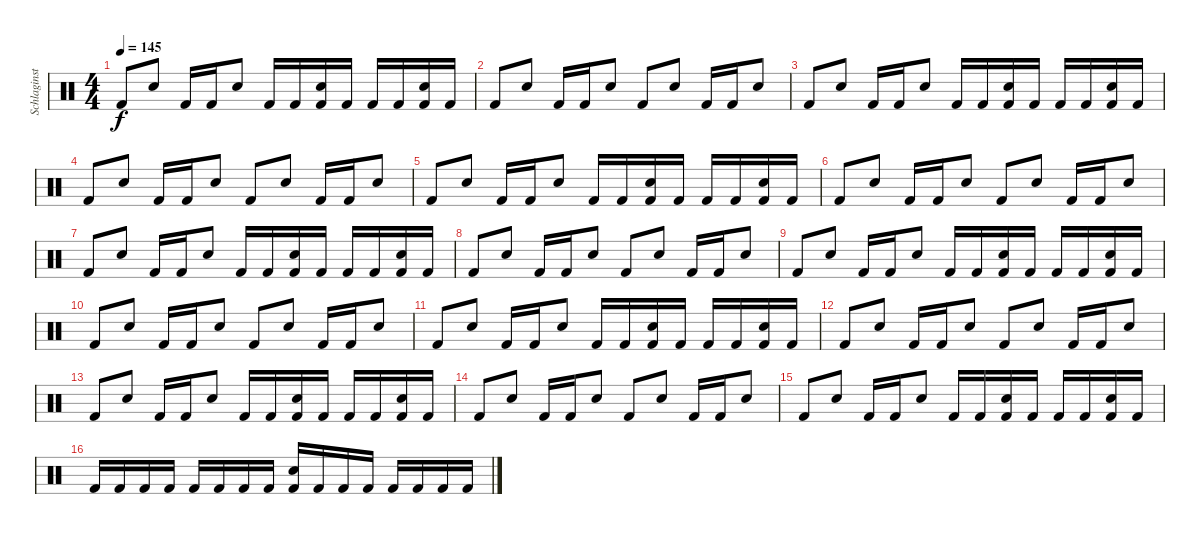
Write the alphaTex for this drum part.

\track ("Schlaginstrumente - Auswahl" "Schlaginst") {instrument percussion}
\staff {score}
\articulation defaults
\ts (4 4)
\tempo 145
\clef neutral
\ks c "Kick (hit) 2".8{dy f} "Snare (hit) 2".8 "Kick (hit) 2".16 "Kick (hit) 2".16 "Snare (hit) 2".8 "Kick (hit) 2".16 "Kick (hit) 2".16
("Snare (hit) 2" "Kick (hit) 2").16 "Kick (hit) 2".16 "Kick (hit) 2".16 "Kick (hit) 2".16 ("Snare (hit) 2" "Kick (hit) 2").16 "Kick (hit) 2".16 |
"Kick (hit) 2".8 "Snare (hit) 2".8 "Kick (hit) 2".16 "Kick (hit) 2".16 "Snare (hit) 2".8 "Kick (hit) 2".8 "Snare (hit) 2".8 "Kick (hit) 2".16 "Kick (hit) 2".16 "Snare (hit) 2".8 |
"Kick (hit) 2".8 "Snare (hit) 2".8 "Kick (hit) 2".16 "Kick (hit) 2".16 "Snare (hit) 2".8 "Kick (hit) 2".16 "Kick (hit) 2".16 ("Snare (hit) 2" "Kick (hit) 2").16 "Kick (hit) 2".16 "Kick (hit) 2".16 "Kick (hit) 2".16 ("Snare (hit) 2" "Kick (hit) 2").16 "Kick (hit) 2".16 |
"Kick (hit) 2".8 "Snare (hit) 2".8 "Kick (hit) 2".16 "Kick (hit) 2".16 "Snare (hit) 2".8 "Kick (hit) 2".8 "Snare (hit) 2".8 "Kick (hit) 2".16 "Kick (hit) 2".16 "Snare (hit) 2".8 |
"Kick (hit) 2".8 "Snare (hit) 2".8 "Kick (hit) 2".16 "Kick (hit) 2".16 "Snare (hit) 2".8 "Kick (hit) 2".16 "Kick (hit) 2".16 ("Snare (hit) 2" "Kick (hit) 2").16 "Kick (hit) 2".16 "Kick (hit) 2".16 "Kick (hit) 2".16 ("Snare (hit) 2" "Kick (hit) 2").16 "Kick (hit) 2".16 |
"Kick (hit) 2".8 "Snare (hit) 2".8 "Kick (hit) 2".16 "Kick (hit) 2".16 "Snare (hit) 2".8 "Kick (hit) 2".8 "Snare (hit) 2".8 "Kick (hit) 2".16 "Kick (hit) 2".16 "Snare (hit) 2".8 |
"Kick (hit) 2".8 "Snare (hit) 2".8 "Kick (hit) 2".16 "Kick (hit) 2".16 "Snare (hit) 2".8 "Kick (hit) 2".16 "Kick (hit) 2".16 ("Snare (hit) 2" "Kick (hit) 2").16 "Kick (hit) 2".16 "Kick (hit) 2".16 "Kick (hit) 2".16 ("Snare (hit) 2" "Kick (hit) 2").16 "Kick (hit) 2".16 |
"Kick (hit) 2".8 "Snare (hit) 2".8 "Kick (hit) 2".16 "Kick (hit) 2".16 "Snare (hit) 2".8 "Kick (hit) 2".8 "Snare (hit) 2".8 "Kick (hit) 2".16 "Kick (hit) 2".16 "Snare (hit) 2".8 |
"Kick (hit) 2".8 "Snare (hit) 2".8 "Kick (hit) 2".16 "Kick (hit) 2".16 "Snare (hit) 2".8 "Kick (hit) 2".16 "Kick (hit) 2".16 ("Snare (hit) 2" "Kick (hit) 2").16 "Kick (hit) 2".16 "Kick (hit) 2".16 "Kick (hit) 2".16 ("Snare (hit) 2" "Kick (hit) 2").16 "Kick (hit) 2".16 |
"Kick (hit) 2".8 "Snare (hit) 2".8 "Kick (hit) 2".16 "Kick (hit) 2".16 "Snare (hit) 2".8 "Kick (hit) 2".8 "Snare (hit) 2".8 "Kick (hit) 2".16 "Kick (hit) 2".16 "Snare (hit) 2".8 |
"Kick (hit) 2".8 "Snare (hit) 2".8 "Kick (hit) 2".16 "Kick (hit) 2".16 "Snare (hit) 2".8 "Kick (hit) 2".16 "Kick (hit) 2".16 ("Snare (hit) 2" "Kick (hit) 2").16 "Kick (hit) 2".16 "Kick (hit) 2".16 "Kick (hit) 2".16 ("Snare (hit) 2" "Kick (hit) 2").16 "Kick (hit) 2".16 |
"Kick (hit) 2".8 "Snare (hit) 2".8 "Kick (hit) 2".16 "Kick (hit) 2".16 "Snare (hit) 2".8 "Kick (hit) 2".8 "Snare (hit) 2".8 "Kick (hit) 2".16 "Kick (hit) 2".16 "Snare (hit) 2".8 |
"Kick (hit) 2".8 "Snare (hit) 2".8 "Kick (hit) 2".16 "Kick (hit) 2".16 "Snare (hit) 2".8 "Kick (hit) 2".16 "Kick (hit) 2".16 ("Snare (hit) 2" "Kick (hit) 2").16 "Kick (hit) 2".16 "Kick (hit) 2".16 "Kick (hit) 2".16 ("Snare (hit) 2" "Kick (hit) 2").16 "Kick (hit) 2".16 |
"Kick (hit) 2".8 "Snare (hit) 2".8 "Kick (hit) 2".16 "Kick (hit) 2".16 "Snare (hit) 2".8 "Kick (hit) 2".8 "Snare (hit) 2".8 "Kick (hit) 2".16 "Kick (hit) 2".16 "Snare (hit) 2".8 |
"Kick (hit) 2".8 "Snare (hit) 2".8 "Kick (hit) 2".16 "Kick (hit) 2".16 "Snare (hit) 2".8 "Kick (hit) 2".16 "Kick (hit) 2".16 ("Snare (hit) 2" "Kick (hit) 2").16 "Kick (hit) 2".16 "Kick (hit) 2".16 "Kick (hit) 2".16 ("Snare (hit) 2" "Kick (hit) 2").16 "Kick (hit) 2".16 |
"Kick (hit) 2".16 "Kick (hit) 2".16 "Kick (hit) 2".16 "Kick (hit) 2".16 "Kick (hit) 2".16 "Kick (hit) 2".16 "Kick (hit) 2".16 "Kick (hit) 2".16 ("Snare (hit) 2" "Kick (hit) 2").16 "Kick (hit) 2".16 "Kick (hit) 2".16 "Kick (hit) 2".16 "Kick (hit) 2".16 "Kick (hit) 2".16 "Kick (hit) 2".16 "Kick (hit) 2".16
